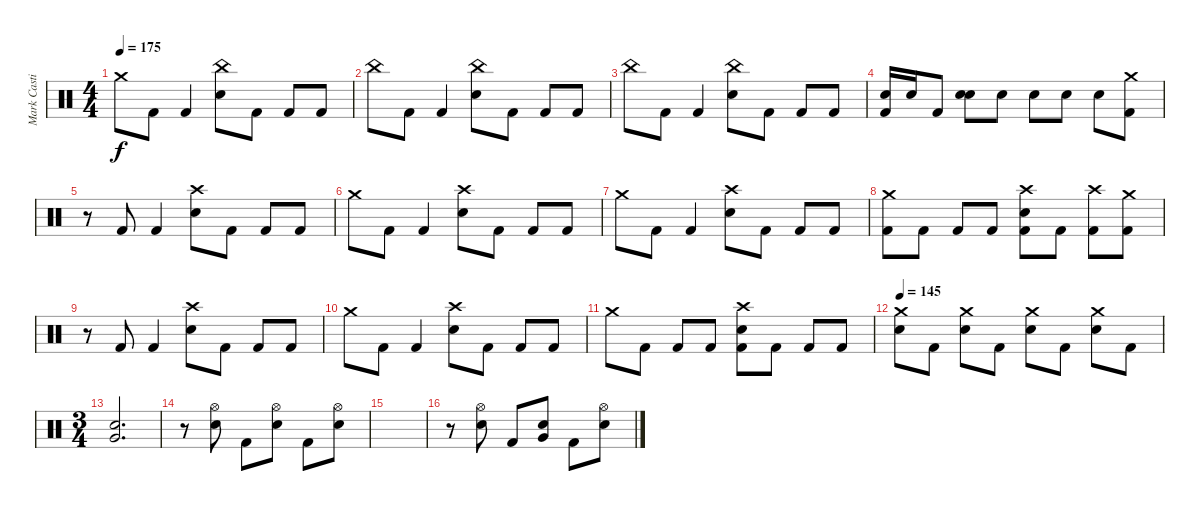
\track ("Mark Castillo" "Mark Casti") {instrument percussion}
\staff {score}
\articulation defaults
\ts (4 4)
\tempo 175
\clef neutral
\ks c "Crash medium (hit)".8{dy f} "Kick (hit) 2".8 "Kick (hit) 2".4
("China (hit)" "Electric Snare (hit)").8 "Kick (hit) 2".8 "Kick (hit) 2".8 "Kick (hit) 2".8 |
"China (hit)".8 "Kick (hit) 2".8 "Kick (hit) 2".4 ("China (hit)" "Electric Snare (hit)").8 "Kick (hit) 2".8 "Kick (hit) 2".8 "Kick (hit) 2".8 |
"China (hit)".8 "Kick (hit) 2".8 "Kick (hit) 2".4 ("China (hit)" "Electric Snare (hit)").8 "Kick (hit) 2".8 "Kick (hit) 2".8 "Kick (hit) 2".8 |
("Electric Snare (hit)" "Kick (hit) 2").16 "Electric Snare (hit)".16 "Kick (hit) 2".8 ("Electric Snare (hit)" "Electric Snare (hit)").8{bd 240} "Electric Snare (hit)".8 "Electric Snare (hit)".8 "Electric Snare (hit)".8 "Electric Snare (hit)".8 ("Crash medium (hit)" "Kick (hit) 2").8 |
r.8 "Kick (hit) 2".8 "Kick (hit) 2".4 ("Crash high (hit)" "Electric Snare (hit)").8 "Kick (hit) 2".8 "Kick (hit) 2".8 "Kick (hit) 2".8 |
"Crash medium (hit)".8 "Kick (hit) 2".8 "Kick (hit) 2".4 ("Crash high (hit)" "Electric Snare (hit)").8 "Kick (hit) 2".8 "Kick (hit) 2".8 "Kick (hit) 2".8 |
"Crash medium (hit)".8 "Kick (hit) 2".8 "Kick (hit) 2".4 ("Crash high (hit)" "Electric Snare (hit)").8 "Kick (hit) 2".8 "Kick (hit) 2".8 "Kick (hit) 2".8 |
("Crash medium (hit)" "Kick (hit) 2").8 "Kick (hit) 2".8 "Kick (hit) 2".8 "Kick (hit) 2".8 ("Crash high (hit)" "Electric Snare (hit)" "Kick (hit) 2").8 "Kick (hit) 2".8 ("Crash high (hit)" "Kick (hit) 2").8 ("Crash medium (hit)" "Kick (hit) 2").8 |
r.8 "Kick (hit) 2".8 "Kick (hit) 2".4 ("Crash high (hit)" "Electric Snare (hit)").8 "Kick (hit) 2".8 "Kick (hit) 2".8 "Kick (hit) 2".8 |
"Crash medium (hit)".8 "Kick (hit) 2".8 "Kick (hit) 2".4 ("Crash high (hit)" "Electric Snare (hit)").8 "Kick (hit) 2".8 "Kick (hit) 2".8 "Kick (hit) 2".8 |
"Crash medium (hit)".8 "Kick (hit) 2".8 "Kick (hit) 2".8 "Kick (hit) 2".8 ("Crash high (hit)" "Electric Snare (hit)" "Kick (hit) 2").8 "Kick (hit) 2".8 "Kick (hit) 2".8 "Kick (hit) 2".8 |
\tempo 145
("Crash medium (hit)" "Electric Snare (hit)").8 "Kick (hit) 2".8 ("Crash medium (hit)" "Electric Snare (hit)").8 "Kick (hit) 2".8 ("Crash medium (hit)" "Electric Snare (hit)").8 "Kick (hit) 2".8 ("Crash medium (hit)" "Electric Snare (hit)").8 "Kick (hit) 2".8 |
\ts (3 4)
("Very Low Tom (hit)" "Electric Snare (hit)").2{d} |
r.8 ("Hi-Hat (open)" "Electric Snare (hit)").8 "Kick (hit) 2".8 ("Hi-Hat (open)" "Electric Snare (hit)").8 "Kick (hit) 2".8 ("Hi-Hat (open)" "Electric Snare (hit)").8 |
|
r.8 ("Hi-Hat (open)" "Electric Snare (hit)").8 "Kick (hit) 2".8 ("Very Low Tom (hit)" "Electric Snare (hit)").8 "Kick (hit) 2".8 ("Hi-Hat (open)" "Electric Snare (hit)").8
